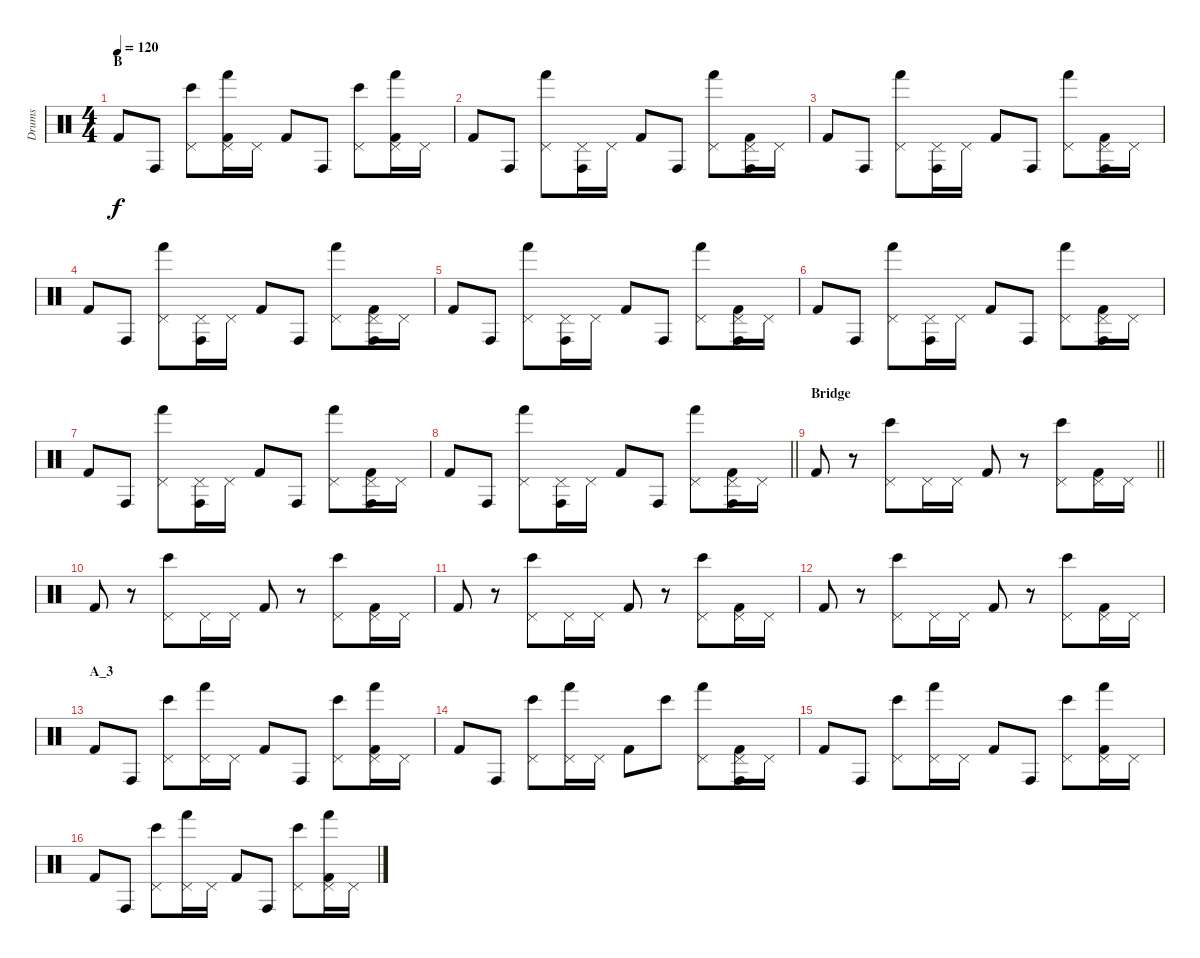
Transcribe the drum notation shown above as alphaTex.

\track ("Drums" "Drums") {instrument percussion}
\staff {score}
\articulation defaults
\ts (4 4)
\section ("" "B")
\tempo 120
\clef neutral
\ks c "Kick (hit) 2".8{dy f} "Conga high (hit)".8
("Pedal Hi-Hat (hit)" "Bongo High (hit)").8 ("Pedal Hi-Hat (hit)" "Hand (hit)" "Kick (hit) 2").16 "Pedal Hi-Hat (hit)".16 "Kick (hit) 2".8 "Conga high (hit)".8 ("Pedal Hi-Hat (hit)" "Bongo High (hit)").8 ("Pedal Hi-Hat (hit)" "Hand (hit)" "Kick (hit) 2").16 "Pedal Hi-Hat (hit)".16 |
"Kick (hit) 2".8 "Conga high (hit)".8 ("Pedal Hi-Hat (hit)" "Hand (hit)").8 ("Pedal Hi-Hat (hit)" "Conga high (hit)").16 "Pedal Hi-Hat (hit)".16 "Kick (hit) 2".8 "Conga high (hit)".8 ("Pedal Hi-Hat (hit)" "Hand (hit)").8 ("Pedal Hi-Hat (hit)" "Conga high (hit)" "Kick (hit) 2").16 "Pedal Hi-Hat (hit)".16 |
"Kick (hit) 2".8 "Conga high (hit)".8 ("Pedal Hi-Hat (hit)" "Hand (hit)").8 ("Pedal Hi-Hat (hit)" "Conga high (hit)").16 "Pedal Hi-Hat (hit)".16 "Kick (hit) 2".8 "Conga high (hit)".8 ("Pedal Hi-Hat (hit)" "Hand (hit)").8 ("Pedal Hi-Hat (hit)" "Conga high (hit)" "Kick (hit) 2").16 "Pedal Hi-Hat (hit)".16 |
"Kick (hit) 2".8 "Conga high (hit)".8 ("Pedal Hi-Hat (hit)" "Hand (hit)").8 ("Pedal Hi-Hat (hit)" "Conga high (hit)").16 "Pedal Hi-Hat (hit)".16 "Kick (hit) 2".8 "Conga high (hit)".8 ("Pedal Hi-Hat (hit)" "Hand (hit)").8 ("Pedal Hi-Hat (hit)" "Conga high (hit)" "Kick (hit) 2").16 "Pedal Hi-Hat (hit)".16 |
"Kick (hit) 2".8 "Conga high (hit)".8 ("Pedal Hi-Hat (hit)" "Hand (hit)").8 ("Pedal Hi-Hat (hit)" "Conga high (hit)").16 "Pedal Hi-Hat (hit)".16 "Kick (hit) 2".8 "Conga high (hit)".8 ("Pedal Hi-Hat (hit)" "Hand (hit)").8 ("Pedal Hi-Hat (hit)" "Conga high (hit)" "Kick (hit) 2").16 "Pedal Hi-Hat (hit)".16 |
"Kick (hit) 2".8 "Conga high (hit)".8 ("Pedal Hi-Hat (hit)" "Hand (hit)").8 ("Pedal Hi-Hat (hit)" "Conga high (hit)").16 "Pedal Hi-Hat (hit)".16 "Kick (hit) 2".8 "Conga high (hit)".8 ("Pedal Hi-Hat (hit)" "Hand (hit)").8 ("Pedal Hi-Hat (hit)" "Conga high (hit)" "Kick (hit) 2").16 "Pedal Hi-Hat (hit)".16 |
"Kick (hit) 2".8 "Conga high (hit)".8 ("Pedal Hi-Hat (hit)" "Hand (hit)").8 ("Pedal Hi-Hat (hit)" "Conga high (hit)").16 "Pedal Hi-Hat (hit)".16 "Kick (hit) 2".8 "Conga high (hit)".8 ("Pedal Hi-Hat (hit)" "Hand (hit)").8 ("Pedal Hi-Hat (hit)" "Conga high (hit)" "Kick (hit) 2").16 "Pedal Hi-Hat (hit)".16 |
\barLineRight lightlight "Kick (hit) 2".8 "Conga high (hit)".8
("Pedal Hi-Hat (hit)" "Hand (hit)").8 ("Pedal Hi-Hat (hit)" "Conga high (hit)").16 "Pedal Hi-Hat (hit)".16 "Kick (hit) 2".8 "Conga high (hit)".8 ("Pedal Hi-Hat (hit)" "Hand (hit)").8 ("Pedal Hi-Hat (hit)" "Conga high (hit)" "Kick (hit) 2").16 "Pedal Hi-Hat (hit)".16 |
\section ("" "Bridge")
\barLineRight lightlight "Kick (hit) 2".8
r.8 ("Pedal Hi-Hat (hit)" "Bongo High (hit)").8 "Pedal Hi-Hat (hit)".16 "Pedal Hi-Hat (hit)".16 "Kick (hit) 2".8 r.8 ("Pedal Hi-Hat (hit)" "Bongo High (hit)").8 ("Pedal Hi-Hat (hit)" "Kick (hit) 2").16 "Pedal Hi-Hat (hit)".16 |
"Kick (hit) 2".8 r.8 ("Pedal Hi-Hat (hit)" "Bongo High (hit)").8 "Pedal Hi-Hat (hit)".16 "Pedal Hi-Hat (hit)".16 "Kick (hit) 2".8 r.8 ("Pedal Hi-Hat (hit)" "Bongo High (hit)").8 ("Pedal Hi-Hat (hit)" "Kick (hit) 2").16 "Pedal Hi-Hat (hit)".16 |
"Kick (hit) 2".8 r.8 ("Pedal Hi-Hat (hit)" "Bongo High (hit)").8 "Pedal Hi-Hat (hit)".16 "Pedal Hi-Hat (hit)".16 "Kick (hit) 2".8 r.8 ("Pedal Hi-Hat (hit)" "Bongo High (hit)").8 ("Pedal Hi-Hat (hit)" "Kick (hit) 2").16 "Pedal Hi-Hat (hit)".16 |
"Kick (hit) 2".8 r.8 ("Pedal Hi-Hat (hit)" "Bongo High (hit)").8 "Pedal Hi-Hat (hit)".16 "Pedal Hi-Hat (hit)".16 "Kick (hit) 2".8 r.8 ("Pedal Hi-Hat (hit)" "Bongo High (hit)").8 ("Pedal Hi-Hat (hit)" "Kick (hit) 2").16 "Pedal Hi-Hat (hit)".16 |
\section ("" "A_3")
"Kick (hit) 2".8 "Conga high (hit)".8 ("Pedal Hi-Hat (hit)" "Bongo High (hit)").8 ("Pedal Hi-Hat (hit)" "Hand (hit)").16 "Pedal Hi-Hat (hit)".16 "Kick (hit) 2".8 "Conga high (hit)".8 ("Pedal Hi-Hat (hit)" "Bongo High (hit)").8 ("Pedal Hi-Hat (hit)" "Hand (hit)" "Kick (hit) 2").16 "Pedal Hi-Hat (hit)".16 |
"Kick (hit) 2".8 "Conga high (hit)".8 ("Pedal Hi-Hat (hit)" "Bongo High (hit)").8 ("Pedal Hi-Hat (hit)" "Hand (hit)").16 "Pedal Hi-Hat (hit)".16 "Kick (hit) 2".8 "Bongo High (hit)".8 ("Pedal Hi-Hat (hit)" "Hand (hit)").8 ("Pedal Hi-Hat (hit)" "Conga high (hit)" "Kick (hit) 2").16 "Pedal Hi-Hat (hit)".16 |
"Kick (hit) 2".8 "Conga high (hit)".8 ("Pedal Hi-Hat (hit)" "Bongo High (hit)").8 ("Pedal Hi-Hat (hit)" "Hand (hit)").16 "Pedal Hi-Hat (hit)".16 "Kick (hit) 2".8 "Conga high (hit)".8 ("Pedal Hi-Hat (hit)" "Bongo High (hit)").8 ("Pedal Hi-Hat (hit)" "Hand (hit)" "Kick (hit) 2").16 "Pedal Hi-Hat (hit)".16 |
"Kick (hit) 2".8 "Conga high (hit)".8 ("Pedal Hi-Hat (hit)" "Bongo High (hit)").8 ("Pedal Hi-Hat (hit)" "Hand (hit)").16 "Pedal Hi-Hat (hit)".16 "Kick (hit) 2".8 "Conga high (hit)".8 ("Pedal Hi-Hat (hit)" "Bongo High (hit)").8 ("Pedal Hi-Hat (hit)" "Hand (hit)" "Kick (hit) 2").16 "Pedal Hi-Hat (hit)".16
